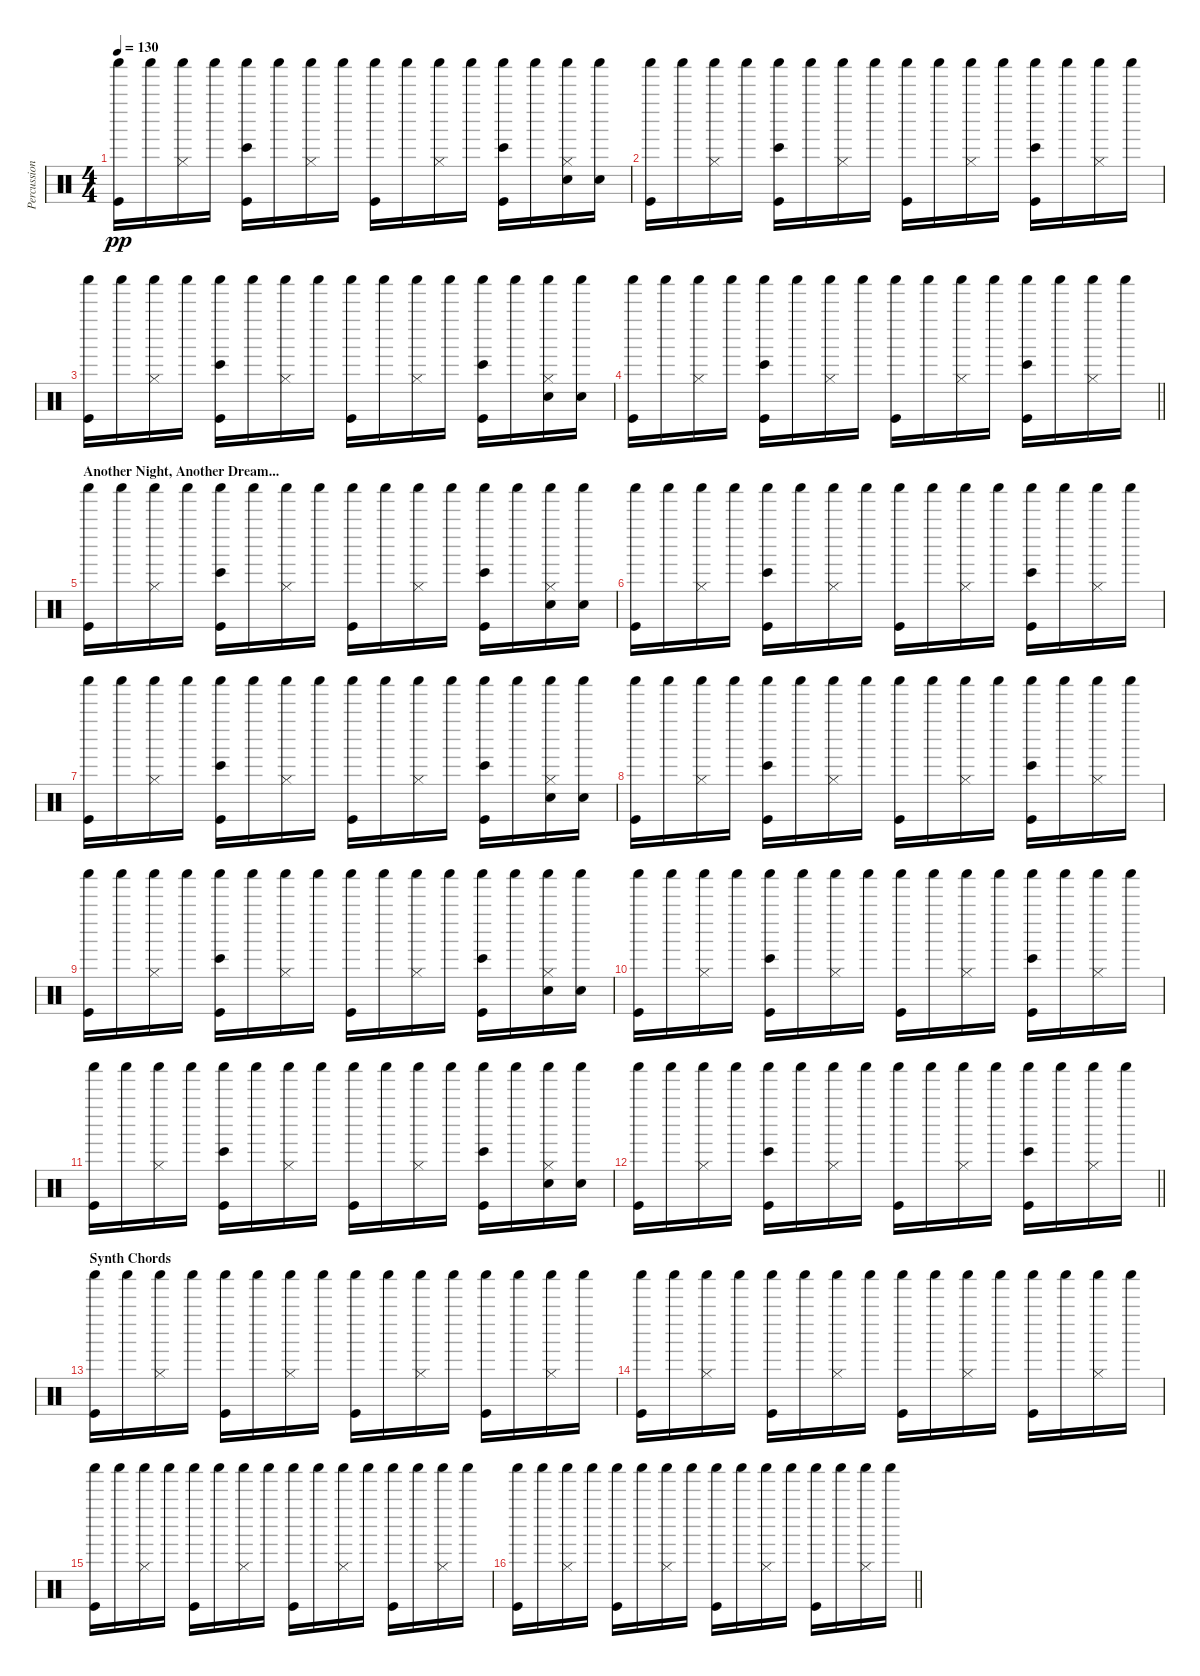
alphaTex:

\track ("Percussion" "Percussion") {instrument percussion}
\staff {score}
\articulation defaults
\ts (4 4)
\tempo 130
\clef neutral
\ks c
("Kick (hit)" "Shaker (hit)").16{dy pp} "Shaker (hit)".16 ("Hi-Hat (closed)" "Shaker (hit)").16 "Shaker (hit)".16 ("Kick (hit)" "Bongo High (hit)" "Shaker (hit)").16 "Shaker (hit)".16 ("Hi-Hat (closed)" "Shaker (hit)").16 "Shaker (hit)".16 ("Kick (hit)" "Shaker (hit)").16 "Shaker (hit)".16 ("Hi-Hat (closed)" "Shaker (hit)").16 "Shaker (hit)".16 ("Kick (hit)" "Bongo High (hit)" "Shaker (hit)").16 "Shaker (hit)".16 ("Electric Snare (hit)" "Hi-Hat (closed)" "Shaker (hit)").16 ("Electric Snare (hit)" "Shaker (hit)").16 |
("Kick (hit)" "Shaker (hit)").16 "Shaker (hit)".16 ("Hi-Hat (closed)" "Shaker (hit)").16 "Shaker (hit)".16 ("Kick (hit)" "Bongo High (hit)" "Shaker (hit)").16 "Shaker (hit)".16 ("Hi-Hat (closed)" "Shaker (hit)").16 "Shaker (hit)".16 ("Kick (hit)" "Shaker (hit)").16 "Shaker (hit)".16 ("Hi-Hat (closed)" "Shaker (hit)").16 "Shaker (hit)".16 ("Kick (hit)" "Bongo High (hit)" "Shaker (hit)").16 "Shaker (hit)".16 ("Hi-Hat (closed)" "Shaker (hit)").16 "Shaker (hit)".16 |
("Kick (hit)" "Shaker (hit)").16 "Shaker (hit)".16 ("Hi-Hat (closed)" "Shaker (hit)").16 "Shaker (hit)".16 ("Kick (hit)" "Bongo High (hit)" "Shaker (hit)").16 "Shaker (hit)".16 ("Hi-Hat (closed)" "Shaker (hit)").16 "Shaker (hit)".16 ("Kick (hit)" "Shaker (hit)").16 "Shaker (hit)".16 ("Hi-Hat (closed)" "Shaker (hit)").16 "Shaker (hit)".16 ("Kick (hit)" "Bongo High (hit)" "Shaker (hit)").16 "Shaker (hit)".16 ("Electric Snare (hit)" "Hi-Hat (closed)" "Shaker (hit)").16 ("Electric Snare (hit)" "Shaker (hit)").16 |
\barLineRight lightlight
("Kick (hit)" "Shaker (hit)").16 "Shaker (hit)".16 ("Hi-Hat (closed)" "Shaker (hit)").16 "Shaker (hit)".16 ("Kick (hit)" "Bongo High (hit)" "Shaker (hit)").16 "Shaker (hit)".16 ("Hi-Hat (closed)" "Shaker (hit)").16 "Shaker (hit)".16 ("Kick (hit)" "Shaker (hit)").16 "Shaker (hit)".16 ("Hi-Hat (closed)" "Shaker (hit)").16 "Shaker (hit)".16 ("Kick (hit)" "Bongo High (hit)" "Shaker (hit)").16 "Shaker (hit)".16 ("Hi-Hat (closed)" "Shaker (hit)").16 "Shaker (hit)".16 |
\section ("" "Another Night, Another Dream...")
("Kick (hit)" "Shaker (hit)").16 "Shaker (hit)".16 ("Hi-Hat (closed)" "Shaker (hit)").16 "Shaker (hit)".16 ("Kick (hit)" "Bongo High (hit)" "Shaker (hit)").16 "Shaker (hit)".16 ("Hi-Hat (closed)" "Shaker (hit)").16 "Shaker (hit)".16 ("Kick (hit)" "Shaker (hit)").16 "Shaker (hit)".16 ("Hi-Hat (closed)" "Shaker (hit)").16 "Shaker (hit)".16 ("Kick (hit)" "Bongo High (hit)" "Shaker (hit)").16 "Shaker (hit)".16 ("Electric Snare (hit)" "Hi-Hat (closed)" "Shaker (hit)").16 ("Electric Snare (hit)" "Shaker (hit)").16 |
("Kick (hit)" "Shaker (hit)").16 "Shaker (hit)".16 ("Hi-Hat (closed)" "Shaker (hit)").16 "Shaker (hit)".16 ("Kick (hit)" "Bongo High (hit)" "Shaker (hit)").16 "Shaker (hit)".16 ("Hi-Hat (closed)" "Shaker (hit)").16 "Shaker (hit)".16 ("Kick (hit)" "Shaker (hit)").16 "Shaker (hit)".16 ("Hi-Hat (closed)" "Shaker (hit)").16 "Shaker (hit)".16 ("Kick (hit)" "Bongo High (hit)" "Shaker (hit)").16 "Shaker (hit)".16 ("Hi-Hat (closed)" "Shaker (hit)").16 "Shaker (hit)".16 |
("Kick (hit)" "Shaker (hit)").16 "Shaker (hit)".16 ("Hi-Hat (closed)" "Shaker (hit)").16 "Shaker (hit)".16 ("Kick (hit)" "Bongo High (hit)" "Shaker (hit)").16 "Shaker (hit)".16 ("Hi-Hat (closed)" "Shaker (hit)").16 "Shaker (hit)".16 ("Kick (hit)" "Shaker (hit)").16 "Shaker (hit)".16 ("Hi-Hat (closed)" "Shaker (hit)").16 "Shaker (hit)".16 ("Kick (hit)" "Bongo High (hit)" "Shaker (hit)").16 "Shaker (hit)".16 ("Electric Snare (hit)" "Hi-Hat (closed)" "Shaker (hit)").16 ("Electric Snare (hit)" "Shaker (hit)").16 |
("Kick (hit)" "Shaker (hit)").16 "Shaker (hit)".16 ("Hi-Hat (closed)" "Shaker (hit)").16 "Shaker (hit)".16 ("Kick (hit)" "Bongo High (hit)" "Shaker (hit)").16 "Shaker (hit)".16 ("Hi-Hat (closed)" "Shaker (hit)").16 "Shaker (hit)".16 ("Kick (hit)" "Shaker (hit)").16 "Shaker (hit)".16 ("Hi-Hat (closed)" "Shaker (hit)").16 "Shaker (hit)".16 ("Kick (hit)" "Bongo High (hit)" "Shaker (hit)").16 "Shaker (hit)".16 ("Hi-Hat (closed)" "Shaker (hit)").16 "Shaker (hit)".16 |
("Kick (hit)" "Shaker (hit)").16 "Shaker (hit)".16 ("Hi-Hat (closed)" "Shaker (hit)").16 "Shaker (hit)".16 ("Kick (hit)" "Bongo High (hit)" "Shaker (hit)").16 "Shaker (hit)".16 ("Hi-Hat (closed)" "Shaker (hit)").16 "Shaker (hit)".16 ("Kick (hit)" "Shaker (hit)").16 "Shaker (hit)".16 ("Hi-Hat (closed)" "Shaker (hit)").16 "Shaker (hit)".16 ("Kick (hit)" "Bongo High (hit)" "Shaker (hit)").16 "Shaker (hit)".16 ("Electric Snare (hit)" "Hi-Hat (closed)" "Shaker (hit)").16 ("Electric Snare (hit)" "Shaker (hit)").16 |
("Kick (hit)" "Shaker (hit)").16 "Shaker (hit)".16 ("Hi-Hat (closed)" "Shaker (hit)").16 "Shaker (hit)".16 ("Kick (hit)" "Bongo High (hit)" "Shaker (hit)").16 "Shaker (hit)".16 ("Hi-Hat (closed)" "Shaker (hit)").16 "Shaker (hit)".16 ("Kick (hit)" "Shaker (hit)").16 "Shaker (hit)".16 ("Hi-Hat (closed)" "Shaker (hit)").16 "Shaker (hit)".16 ("Kick (hit)" "Bongo High (hit)" "Shaker (hit)").16 "Shaker (hit)".16 ("Hi-Hat (closed)" "Shaker (hit)").16 "Shaker (hit)".16 |
("Kick (hit)" "Shaker (hit)").16 "Shaker (hit)".16 ("Hi-Hat (closed)" "Shaker (hit)").16 "Shaker (hit)".16 ("Kick (hit)" "Bongo High (hit)" "Shaker (hit)").16 "Shaker (hit)".16 ("Hi-Hat (closed)" "Shaker (hit)").16 "Shaker (hit)".16 ("Kick (hit)" "Shaker (hit)").16 "Shaker (hit)".16 ("Hi-Hat (closed)" "Shaker (hit)").16 "Shaker (hit)".16 ("Kick (hit)" "Bongo High (hit)" "Shaker (hit)").16 "Shaker (hit)".16 ("Electric Snare (hit)" "Hi-Hat (closed)" "Shaker (hit)").16 ("Electric Snare (hit)" "Shaker (hit)").16 |
\barLineRight lightlight
("Kick (hit)" "Shaker (hit)").16 "Shaker (hit)".16 ("Hi-Hat (closed)" "Shaker (hit)").16 "Shaker (hit)".16 ("Kick (hit)" "Bongo High (hit)" "Shaker (hit)").16 "Shaker (hit)".16 ("Hi-Hat (closed)" "Shaker (hit)").16 "Shaker (hit)".16 ("Kick (hit)" "Shaker (hit)").16 "Shaker (hit)".16 ("Hi-Hat (closed)" "Shaker (hit)").16 "Shaker (hit)".16 ("Kick (hit)" "Bongo High (hit)" "Shaker (hit)").16 "Shaker (hit)".16 ("Hi-Hat (closed)" "Shaker (hit)").16 "Shaker (hit)".16 |
\section ("" "Synth Chords")
("Kick (hit)" "Shaker (hit)").16 "Shaker (hit)".16 ("Hi-Hat (closed)" "Shaker (hit)").16 "Shaker (hit)".16 ("Kick (hit)" "Shaker (hit)").16 "Shaker (hit)".16 ("Hi-Hat (closed)" "Shaker (hit)").16 "Shaker (hit)".16 ("Kick (hit)" "Shaker (hit)").16 "Shaker (hit)".16 ("Hi-Hat (closed)" "Shaker (hit)").16 "Shaker (hit)".16 ("Kick (hit)" "Shaker (hit)").16 "Shaker (hit)".16 ("Hi-Hat (closed)" "Shaker (hit)").16 "Shaker (hit)".16 |
("Kick (hit)" "Shaker (hit)").16 "Shaker (hit)".16 ("Hi-Hat (closed)" "Shaker (hit)").16 "Shaker (hit)".16 ("Kick (hit)" "Shaker (hit)").16 "Shaker (hit)".16 ("Hi-Hat (closed)" "Shaker (hit)").16 "Shaker (hit)".16 ("Kick (hit)" "Shaker (hit)").16 "Shaker (hit)".16 ("Hi-Hat (closed)" "Shaker (hit)").16 "Shaker (hit)".16 ("Kick (hit)" "Shaker (hit)").16 "Shaker (hit)".16 ("Hi-Hat (closed)" "Shaker (hit)").16 "Shaker (hit)".16 |
("Kick (hit)" "Shaker (hit)").16 "Shaker (hit)".16 ("Hi-Hat (closed)" "Shaker (hit)").16 "Shaker (hit)".16 ("Kick (hit)" "Shaker (hit)").16 "Shaker (hit)".16 ("Hi-Hat (closed)" "Shaker (hit)").16 "Shaker (hit)".16 ("Kick (hit)" "Shaker (hit)").16 "Shaker (hit)".16 ("Hi-Hat (closed)" "Shaker (hit)").16 "Shaker (hit)".16 ("Kick (hit)" "Shaker (hit)").16 "Shaker (hit)".16 ("Hi-Hat (closed)" "Shaker (hit)").16 "Shaker (hit)".16 |
\barLineRight lightlight
("Kick (hit)" "Shaker (hit)").16 "Shaker (hit)".16 ("Hi-Hat (closed)" "Shaker (hit)").16 "Shaker (hit)".16 ("Kick (hit)" "Shaker (hit)").16 "Shaker (hit)".16 ("Hi-Hat (closed)" "Shaker (hit)").16 "Shaker (hit)".16 ("Kick (hit)" "Shaker (hit)").16 "Shaker (hit)".16 ("Hi-Hat (closed)" "Shaker (hit)").16 "Shaker (hit)".16 ("Kick (hit)" "Shaker (hit)").16 "Shaker (hit)".16 ("Hi-Hat (closed)" "Shaker (hit)").16 "Shaker (hit)".16
